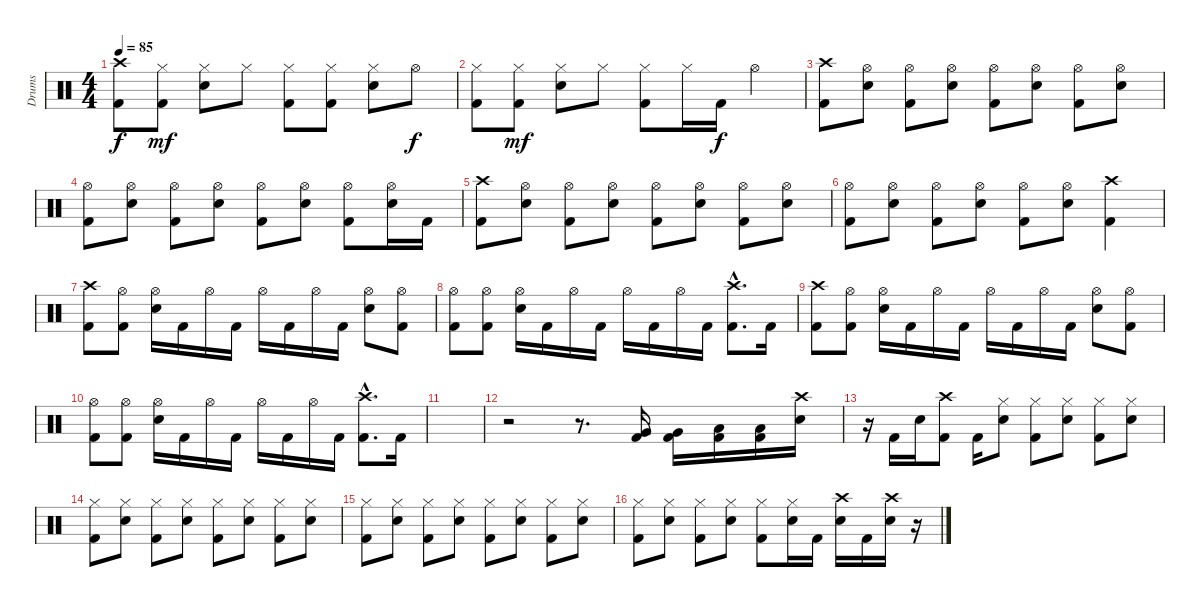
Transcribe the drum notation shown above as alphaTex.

\track ("Drums" "Drums") {instrument percussion}
\staff {score}
\articulation defaults
\ts (4 4)
\tempo 85
\clef neutral
\ks c
("Crash high (hit)" "Kick (hit) 2").8{dy f} ("Hi-Hat (closed)" "Kick (hit) 2").8{dy mf} ("Hi-Hat (closed)" "Electric Snare (hit)").8 "Hi-Hat (closed)".8 ("Hi-Hat (closed)" "Kick (hit) 2").8 ("Hi-Hat (closed)" "Kick (hit) 2").8 ("Hi-Hat (closed)" "Electric Snare (hit)").8 "Hi-Hat (open)".8{dy f} |
("Hi-Hat (closed)" "Kick (hit) 2").8 ("Hi-Hat (closed)" "Kick (hit) 2").8{dy mf} ("Hi-Hat (closed)" "Electric Snare (hit)").8 "Hi-Hat (closed)".8 ("Hi-Hat (closed)" "Kick (hit) 2").8 "Hi-Hat (closed)".16 "Kick (hit) 2".16{dy f} "Hi-Hat (open)".4 |
("Crash high (hit)" "Kick (hit) 2").8 ("Hi-Hat (open)" "Electric Snare (hit)").8 ("Hi-Hat (open)" "Kick (hit) 2").8 ("Hi-Hat (open)" "Electric Snare (hit)").8 ("Hi-Hat (open)" "Kick (hit) 2").8 ("Hi-Hat (open)" "Electric Snare (hit)").8 ("Hi-Hat (open)" "Kick (hit) 2").8 ("Hi-Hat (open)" "Electric Snare (hit)").8 |
("Hi-Hat (open)" "Kick (hit) 2").8 ("Hi-Hat (open)" "Electric Snare (hit)").8 ("Hi-Hat (open)" "Kick (hit) 2").8 ("Hi-Hat (open)" "Electric Snare (hit)").8 ("Hi-Hat (open)" "Kick (hit) 2").8 ("Hi-Hat (open)" "Electric Snare (hit)").8 ("Hi-Hat (open)" "Kick (hit) 2").8 ("Hi-Hat (open)" "Electric Snare (hit)").16 "Kick (hit) 2".16 |
("Crash high (hit)" "Kick (hit) 2").8 ("Hi-Hat (open)" "Electric Snare (hit)").8 ("Hi-Hat (open)" "Kick (hit) 2").8 ("Hi-Hat (open)" "Electric Snare (hit)").8 ("Hi-Hat (open)" "Kick (hit) 2").8 ("Hi-Hat (open)" "Electric Snare (hit)").8 ("Hi-Hat (open)" "Kick (hit) 2").8 ("Hi-Hat (open)" "Electric Snare (hit)").8 |
("Hi-Hat (open)" "Kick (hit) 2").8 ("Hi-Hat (open)" "Electric Snare (hit)").8 ("Hi-Hat (open)" "Kick (hit) 2").8 ("Hi-Hat (open)" "Electric Snare (hit)").8 ("Hi-Hat (open)" "Kick (hit) 2").8 ("Hi-Hat (open)" "Electric Snare (hit)").8 ("Crash high (hit)" "Kick (hit) 2").4 |
("Crash high (hit)" "Kick (hit) 2").8 ("Hi-Hat (open)" "Kick (hit) 2").8 ("Hi-Hat (open)" "Electric Snare (hit)").16 "Kick (hit) 2".16 "Hi-Hat (open)".16 "Kick (hit) 2".16 "Hi-Hat (open)".16 "Kick (hit) 2".16 "Hi-Hat (open)".16 "Kick (hit) 2".16 ("Hi-Hat (open)" "Electric Snare (hit)").8 ("Hi-Hat (open)" "Kick (hit) 2").8 |
("Hi-Hat (open)" "Kick (hit) 2").8 ("Hi-Hat (open)" "Kick (hit) 2").8 ("Hi-Hat (open)" "Electric Snare (hit)").16 "Kick (hit) 2".16 "Hi-Hat (open)".16 "Kick (hit) 2".16 "Hi-Hat (open)".16 "Kick (hit) 2".16 "Hi-Hat (open)".16 "Kick (hit) 2".16 ("Crash high (hit)"{hac} "Kick (hit) 2"{hac}).8{d} "Kick (hit) 2".16 |
("Crash high (hit)" "Kick (hit) 2").8 ("Hi-Hat (open)" "Kick (hit) 2").8 ("Hi-Hat (open)" "Electric Snare (hit)").16 "Kick (hit) 2".16 "Hi-Hat (open)".16 "Kick (hit) 2".16 "Hi-Hat (open)".16 "Kick (hit) 2".16 "Hi-Hat (open)".16 "Kick (hit) 2".16 ("Hi-Hat (open)" "Electric Snare (hit)").8 ("Hi-Hat (open)" "Kick (hit) 2").8 |
("Hi-Hat (open)" "Kick (hit) 2").8 ("Hi-Hat (open)" "Kick (hit) 2").8 ("Hi-Hat (open)" "Electric Snare (hit)").16 "Kick (hit) 2".16 "Hi-Hat (open)".16 "Kick (hit) 2".16 "Hi-Hat (open)".16 "Kick (hit) 2".16 "Hi-Hat (open)".16 "Kick (hit) 2".16 ("Crash high (hit)"{hac} "Kick (hit) 2"{hac}).8{d} "Kick (hit) 2".16 |
|
r.2 r.8{d} ("Very Low Tom (hit)" "Kick (hit) 2").16 ("Very Low Tom (hit)" "Kick (hit) 2").16 ("Low Floor Tom (hit)" "Kick (hit) 2").16 ("Low Floor Tom (hit)" "Kick (hit) 2").16 ("Crash high (hit)" "Electric Snare (hit)").16 |
r.16 "Kick (hit) 2".16 "Electric Snare (hit)".16 ("Crash high (hit)" "Kick (hit) 2").8 "Kick (hit) 2".16 ("Hi-Hat (closed)" "Electric Snare (hit)").8 ("Hi-Hat (closed)" "Kick (hit) 2").8 ("Hi-Hat (closed)" "Electric Snare (hit)").8 ("Hi-Hat (closed)" "Kick (hit) 2").8 ("Hi-Hat (closed)" "Electric Snare (hit)").8 |
("Hi-Hat (closed)" "Kick (hit) 2").8 ("Hi-Hat (closed)" "Electric Snare (hit)").8 ("Hi-Hat (closed)" "Kick (hit) 2").8 ("Hi-Hat (closed)" "Electric Snare (hit)").8 ("Hi-Hat (closed)" "Kick (hit) 2").8 ("Hi-Hat (closed)" "Electric Snare (hit)").8 ("Hi-Hat (closed)" "Kick (hit) 2").8 ("Hi-Hat (closed)" "Electric Snare (hit)").8 |
("Hi-Hat (closed)" "Kick (hit) 2").8 ("Hi-Hat (closed)" "Electric Snare (hit)").8 ("Hi-Hat (closed)" "Kick (hit) 2").8 ("Hi-Hat (closed)" "Electric Snare (hit)").8 ("Hi-Hat (closed)" "Kick (hit) 2").8 ("Hi-Hat (closed)" "Electric Snare (hit)").8 ("Hi-Hat (closed)" "Kick (hit) 2").8 ("Hi-Hat (closed)" "Electric Snare (hit)").8 |
("Hi-Hat (closed)" "Kick (hit) 2").8 ("Hi-Hat (closed)" "Electric Snare (hit)").8 ("Hi-Hat (closed)" "Kick (hit) 2").8 ("Hi-Hat (closed)" "Electric Snare (hit)").8 ("Hi-Hat (closed)" "Kick (hit) 2").8 ("Hi-Hat (closed)" "Electric Snare (hit)").16 "Kick (hit) 2".16 ("Crash high (hit)" "Electric Snare (hit)").16 "Kick (hit) 2".16 ("Crash high (hit)" "Electric Snare (hit)").16 r.16
